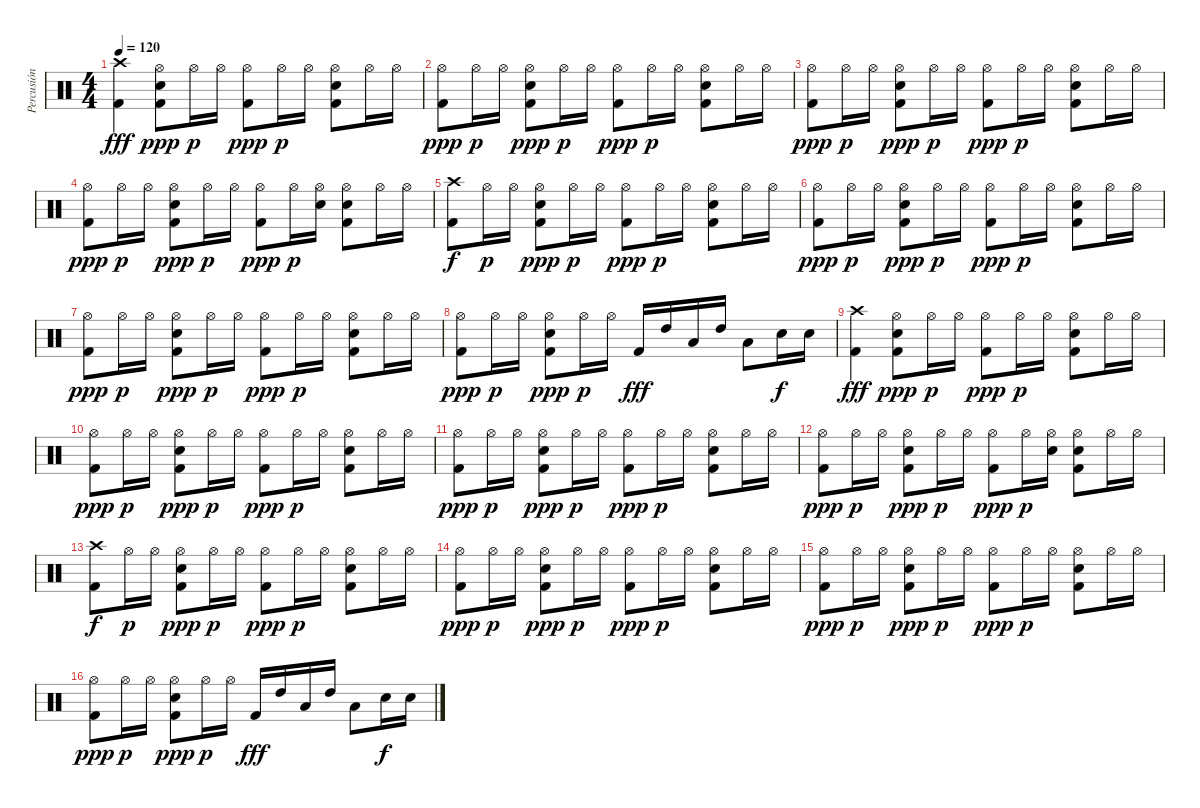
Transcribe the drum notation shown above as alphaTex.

\track ("Percusión" "Percusión") {instrument percussion}
\staff {score}
\articulation defaults
\ts (4 4)
\tempo 120
\clef neutral
\ks c
("Crash high (hit)" "Kick (hit) 2").4{dy fff} ("Hi-Hat (open)" "Kick (hit) 2" "Snare (hit) 2").8{dy ppp} "Hi-Hat (open)".16{dy p} "Hi-Hat (open)".16 ("Hi-Hat (open)" "Kick (hit) 2").8{dy ppp} "Hi-Hat (open)".16{dy p} "Hi-Hat (open)".16 ("Hi-Hat (open)" "Kick (hit) 2" "Snare (hit) 2").8 "Hi-Hat (open)".16 "Hi-Hat (open)".16 |
("Hi-Hat (open)" "Kick (hit) 2").8{dy ppp} "Hi-Hat (open)".16{dy p} "Hi-Hat (open)".16 ("Hi-Hat (open)" "Kick (hit) 2" "Snare (hit) 2").8{dy ppp} "Hi-Hat (open)".16{dy p} "Hi-Hat (open)".16 ("Hi-Hat (open)" "Kick (hit) 2").8{dy ppp} "Hi-Hat (open)".16{dy p} "Hi-Hat (open)".16 ("Hi-Hat (open)" "Kick (hit) 2" "Snare (hit) 2").8 "Hi-Hat (open)".16 "Hi-Hat (open)".16 |
("Hi-Hat (open)" "Kick (hit) 2").8{dy ppp} "Hi-Hat (open)".16{dy p} "Hi-Hat (open)".16 ("Hi-Hat (open)" "Kick (hit) 2" "Snare (hit) 2").8{dy ppp} "Hi-Hat (open)".16{dy p} "Hi-Hat (open)".16 ("Hi-Hat (open)" "Kick (hit) 2").8{dy ppp} "Hi-Hat (open)".16{dy p} "Hi-Hat (open)".16 ("Hi-Hat (open)" "Kick (hit) 2" "Snare (hit) 2").8 "Hi-Hat (open)".16 "Hi-Hat (open)".16 |
("Hi-Hat (open)" "Kick (hit) 2").8{dy ppp} "Hi-Hat (open)".16{dy p} "Hi-Hat (open)".16 ("Hi-Hat (open)" "Kick (hit) 2" "Snare (hit) 2").8{dy ppp} "Hi-Hat (open)".16{dy p} "Hi-Hat (open)".16 ("Hi-Hat (open)" "Kick (hit) 2").8{dy ppp} "Hi-Hat (open)".16{dy p} ("Hi-Hat (open)" "Snare (hit) 2").16 ("Hi-Hat (open)" "Kick (hit) 2" "Snare (hit) 2").8 "Hi-Hat (open)".16 "Hi-Hat (open)".16 |
("Crash high (hit)" "Kick (hit) 2").8{dy f} "Hi-Hat (open)".16{dy p} "Hi-Hat (open)".16 ("Hi-Hat (open)" "Kick (hit) 2" "Snare (hit) 2").8{dy ppp} "Hi-Hat (open)".16{dy p} "Hi-Hat (open)".16 ("Hi-Hat (open)" "Kick (hit) 2").8{dy ppp} "Hi-Hat (open)".16{dy p} "Hi-Hat (open)".16 ("Hi-Hat (open)" "Kick (hit) 2" "Snare (hit) 2").8 "Hi-Hat (open)".16 "Hi-Hat (open)".16 |
("Hi-Hat (open)" "Kick (hit) 2").8{dy ppp} "Hi-Hat (open)".16{dy p} "Hi-Hat (open)".16 ("Hi-Hat (open)" "Kick (hit) 2" "Snare (hit) 2").8{dy ppp} "Hi-Hat (open)".16{dy p} "Hi-Hat (open)".16 ("Hi-Hat (open)" "Kick (hit) 2").8{dy ppp} "Hi-Hat (open)".16{dy p} "Hi-Hat (open)".16 ("Hi-Hat (open)" "Kick (hit) 2" "Snare (hit) 2").8 "Hi-Hat (open)".16 "Hi-Hat (open)".16 |
("Hi-Hat (open)" "Kick (hit) 2").8{dy ppp} "Hi-Hat (open)".16{dy p} "Hi-Hat (open)".16 ("Hi-Hat (open)" "Kick (hit) 2" "Snare (hit) 2").8{dy ppp} "Hi-Hat (open)".16{dy p} "Hi-Hat (open)".16 ("Hi-Hat (open)" "Kick (hit) 2").8{dy ppp} "Hi-Hat (open)".16{dy p} "Hi-Hat (open)".16 ("Hi-Hat (open)" "Kick (hit) 2" "Snare (hit) 2").8 "Hi-Hat (open)".16 "Hi-Hat (open)".16 |
("Hi-Hat (open)" "Kick (hit) 2").8{dy ppp} "Hi-Hat (open)".16{dy p} "Hi-Hat (open)".16 ("Hi-Hat (open)" "Kick (hit) 2" "Snare (hit) 2").8{dy ppp} "Hi-Hat (open)".16{dy p} "Hi-Hat (open)".16 "Kick (hit) 2".16{dy fff} "High Tom (hit)".16 "Low Tom (hit)".16 "High Tom (hit)".16 "Low Tom (hit)".8 "Snare (hit) 2".16{dy f} "Snare (hit) 2".16 |
("Crash high (hit)" "Kick (hit) 2").4{dy fff} ("Hi-Hat (open)" "Kick (hit) 2" "Snare (hit) 2").8{dy ppp} "Hi-Hat (open)".16{dy p} "Hi-Hat (open)".16 ("Hi-Hat (open)" "Kick (hit) 2").8{dy ppp} "Hi-Hat (open)".16{dy p} "Hi-Hat (open)".16 ("Hi-Hat (open)" "Kick (hit) 2" "Snare (hit) 2").8 "Hi-Hat (open)".16 "Hi-Hat (open)".16 |
("Hi-Hat (open)" "Kick (hit) 2").8{dy ppp} "Hi-Hat (open)".16{dy p} "Hi-Hat (open)".16 ("Hi-Hat (open)" "Kick (hit) 2" "Snare (hit) 2").8{dy ppp} "Hi-Hat (open)".16{dy p} "Hi-Hat (open)".16 ("Hi-Hat (open)" "Kick (hit) 2").8{dy ppp} "Hi-Hat (open)".16{dy p} "Hi-Hat (open)".16 ("Hi-Hat (open)" "Kick (hit) 2" "Snare (hit) 2").8 "Hi-Hat (open)".16 "Hi-Hat (open)".16 |
("Hi-Hat (open)" "Kick (hit) 2").8{dy ppp} "Hi-Hat (open)".16{dy p} "Hi-Hat (open)".16 ("Hi-Hat (open)" "Kick (hit) 2" "Snare (hit) 2").8{dy ppp} "Hi-Hat (open)".16{dy p} "Hi-Hat (open)".16 ("Hi-Hat (open)" "Kick (hit) 2").8{dy ppp} "Hi-Hat (open)".16{dy p} "Hi-Hat (open)".16 ("Hi-Hat (open)" "Kick (hit) 2" "Snare (hit) 2").8 "Hi-Hat (open)".16 "Hi-Hat (open)".16 |
("Hi-Hat (open)" "Kick (hit) 2").8{dy ppp} "Hi-Hat (open)".16{dy p} "Hi-Hat (open)".16 ("Hi-Hat (open)" "Kick (hit) 2" "Snare (hit) 2").8{dy ppp} "Hi-Hat (open)".16{dy p} "Hi-Hat (open)".16 ("Hi-Hat (open)" "Kick (hit) 2").8{dy ppp} "Hi-Hat (open)".16{dy p} ("Hi-Hat (open)" "Snare (hit) 2").16 ("Hi-Hat (open)" "Kick (hit) 2" "Snare (hit) 2").8 "Hi-Hat (open)".16 "Hi-Hat (open)".16 |
("Crash high (hit)" "Kick (hit) 2").8{dy f} "Hi-Hat (open)".16{dy p} "Hi-Hat (open)".16 ("Hi-Hat (open)" "Kick (hit) 2" "Snare (hit) 2").8{dy ppp} "Hi-Hat (open)".16{dy p} "Hi-Hat (open)".16 ("Hi-Hat (open)" "Kick (hit) 2").8{dy ppp} "Hi-Hat (open)".16{dy p} "Hi-Hat (open)".16 ("Hi-Hat (open)" "Kick (hit) 2" "Snare (hit) 2").8 "Hi-Hat (open)".16 "Hi-Hat (open)".16 |
("Hi-Hat (open)" "Kick (hit) 2").8{dy ppp} "Hi-Hat (open)".16{dy p} "Hi-Hat (open)".16 ("Hi-Hat (open)" "Kick (hit) 2" "Snare (hit) 2").8{dy ppp} "Hi-Hat (open)".16{dy p} "Hi-Hat (open)".16 ("Hi-Hat (open)" "Kick (hit) 2").8{dy ppp} "Hi-Hat (open)".16{dy p} "Hi-Hat (open)".16 ("Hi-Hat (open)" "Kick (hit) 2" "Snare (hit) 2").8 "Hi-Hat (open)".16 "Hi-Hat (open)".16 |
("Hi-Hat (open)" "Kick (hit) 2").8{dy ppp} "Hi-Hat (open)".16{dy p} "Hi-Hat (open)".16 ("Hi-Hat (open)" "Kick (hit) 2" "Snare (hit) 2").8{dy ppp} "Hi-Hat (open)".16{dy p} "Hi-Hat (open)".16 ("Hi-Hat (open)" "Kick (hit) 2").8{dy ppp} "Hi-Hat (open)".16{dy p} "Hi-Hat (open)".16 ("Hi-Hat (open)" "Kick (hit) 2" "Snare (hit) 2").8 "Hi-Hat (open)".16 "Hi-Hat (open)".16 |
("Hi-Hat (open)" "Kick (hit) 2").8{dy ppp} "Hi-Hat (open)".16{dy p} "Hi-Hat (open)".16 ("Hi-Hat (open)" "Kick (hit) 2" "Snare (hit) 2").8{dy ppp} "Hi-Hat (open)".16{dy p} "Hi-Hat (open)".16 "Kick (hit) 2".16{dy fff} "High Tom (hit)".16 "Low Tom (hit)".16 "High Tom (hit)".16 "Low Tom (hit)".8 "Snare (hit) 2".16{dy f} "Snare (hit) 2".16
